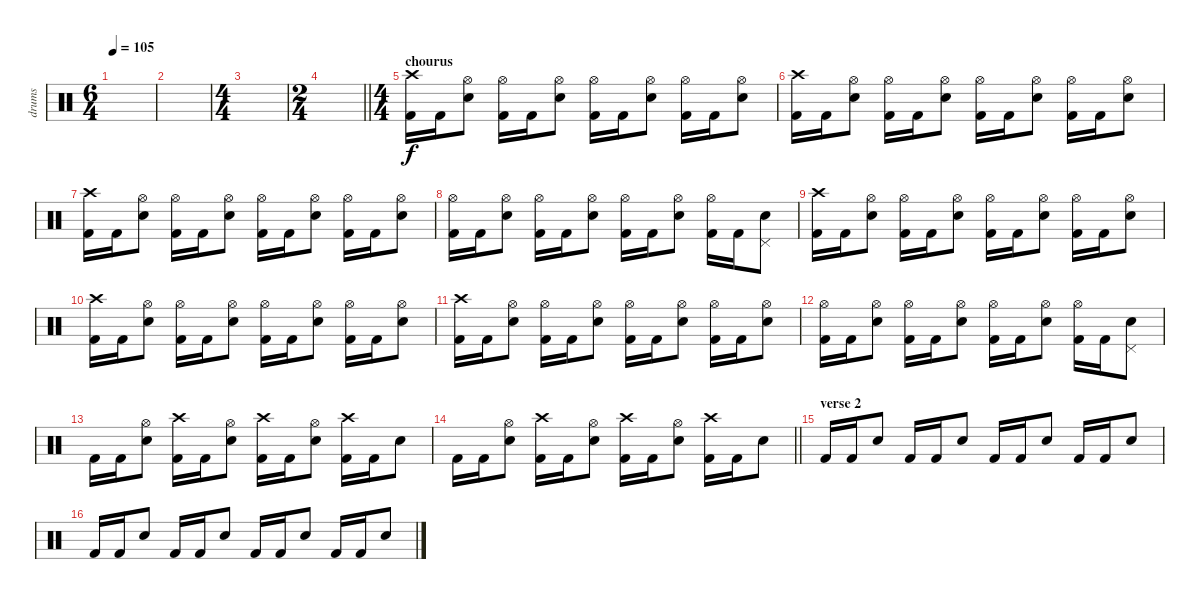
\track ("drums" "drums") {instrument percussion}
\staff {score}
\articulation defaults
\ts (6 4)
\tempo 105
\clef neutral
\ks c
|
|
\ts (4 4)
|
\ts (2 4)
\barLineRight lightlight
|
\ts (4 4)
\section ("" "chourus")
("Crash high (hit)" "Kick (hit) 2").16 "Kick (hit) 2".16 ("Hi-Hat (open)" "Snare (hit) 2").8 ("Hi-Hat (open)" "Kick (hit) 2").16 "Kick (hit) 2".16 ("Hi-Hat (open)" "Snare (hit) 2").8 ("Hi-Hat (open)" "Kick (hit) 2").16 "Kick (hit) 2".16 ("Hi-Hat (open)" "Snare (hit) 2").8 ("Hi-Hat (open)" "Kick (hit) 2").16 "Kick (hit) 2".16 ("Hi-Hat (open)" "Snare (hit) 2").8 |
("Crash high (hit)" "Kick (hit) 2").16 "Kick (hit) 2".16 ("Hi-Hat (open)" "Snare (hit) 2").8 ("Hi-Hat (open)" "Kick (hit) 2").16 "Kick (hit) 2".16 ("Hi-Hat (open)" "Snare (hit) 2").8 ("Hi-Hat (open)" "Kick (hit) 2").16 "Kick (hit) 2".16 ("Hi-Hat (open)" "Snare (hit) 2").8 ("Hi-Hat (open)" "Kick (hit) 2").16 "Kick (hit) 2".16 ("Hi-Hat (open)" "Snare (hit) 2").8 |
("Crash high (hit)" "Kick (hit) 2").16 "Kick (hit) 2".16 ("Hi-Hat (open)" "Snare (hit) 2").8 ("Hi-Hat (open)" "Kick (hit) 2").16 "Kick (hit) 2".16 ("Hi-Hat (open)" "Snare (hit) 2").8 ("Hi-Hat (open)" "Kick (hit) 2").16 "Kick (hit) 2".16 ("Hi-Hat (open)" "Snare (hit) 2").8 ("Hi-Hat (open)" "Kick (hit) 2").16 "Kick (hit) 2".16 ("Hi-Hat (open)" "Snare (hit) 2").8 |
("Hi-Hat (open)" "Kick (hit) 2").16 "Kick (hit) 2".16 ("Hi-Hat (open)" "Snare (hit) 2").8 ("Hi-Hat (open)" "Kick (hit) 2").16 "Kick (hit) 2".16 ("Hi-Hat (open)" "Snare (hit) 2").8 ("Hi-Hat (open)" "Kick (hit) 2").16 "Kick (hit) 2".16 ("Hi-Hat (open)" "Snare (hit) 2").8 ("Hi-Hat (open)" "Kick (hit) 2").16 "Kick (hit) 2".16 ("Pedal Hi-Hat (hit)" "Snare (hit) 2").8 |
("Crash high (hit)" "Kick (hit) 2").16 "Kick (hit) 2".16 ("Hi-Hat (open)" "Snare (hit) 2").8 ("Hi-Hat (open)" "Kick (hit) 2").16 "Kick (hit) 2".16 ("Hi-Hat (open)" "Snare (hit) 2").8 ("Hi-Hat (open)" "Kick (hit) 2").16 "Kick (hit) 2".16 ("Hi-Hat (open)" "Snare (hit) 2").8 ("Hi-Hat (open)" "Kick (hit) 2").16 "Kick (hit) 2".16 ("Hi-Hat (open)" "Snare (hit) 2").8 |
("Crash high (hit)" "Kick (hit) 2").16 "Kick (hit) 2".16 ("Hi-Hat (open)" "Snare (hit) 2").8 ("Hi-Hat (open)" "Kick (hit) 2").16 "Kick (hit) 2".16 ("Hi-Hat (open)" "Snare (hit) 2").8 ("Hi-Hat (open)" "Kick (hit) 2").16 "Kick (hit) 2".16 ("Hi-Hat (open)" "Snare (hit) 2").8 ("Hi-Hat (open)" "Kick (hit) 2").16 "Kick (hit) 2".16 ("Hi-Hat (open)" "Snare (hit) 2").8 |
("Crash high (hit)" "Kick (hit) 2").16 "Kick (hit) 2".16 ("Hi-Hat (open)" "Snare (hit) 2").8 ("Hi-Hat (open)" "Kick (hit) 2").16 "Kick (hit) 2".16 ("Hi-Hat (open)" "Snare (hit) 2").8 ("Hi-Hat (open)" "Kick (hit) 2").16 "Kick (hit) 2".16 ("Hi-Hat (open)" "Snare (hit) 2").8 ("Hi-Hat (open)" "Kick (hit) 2").16 "Kick (hit) 2".16 ("Hi-Hat (open)" "Snare (hit) 2").8 |
("Hi-Hat (open)" "Kick (hit) 2").16 "Kick (hit) 2".16 ("Hi-Hat (open)" "Snare (hit) 2").8 ("Hi-Hat (open)" "Kick (hit) 2").16 "Kick (hit) 2".16 ("Hi-Hat (open)" "Snare (hit) 2").8 ("Hi-Hat (open)" "Kick (hit) 2").16 "Kick (hit) 2".16 ("Hi-Hat (open)" "Snare (hit) 2").8 ("Hi-Hat (open)" "Kick (hit) 2").16 "Kick (hit) 2".16 ("Pedal Hi-Hat (hit)" "Snare (hit) 2").8 |
"Kick (hit) 2".16 "Kick (hit) 2".16 ("Hi-Hat (open)" "Snare (hit) 2").8 ("Crash high (hit)" "Kick (hit) 2").16 "Kick (hit) 2".16 ("Hi-Hat (open)" "Snare (hit) 2").8 ("Crash high (hit)" "Kick (hit) 2").16 "Kick (hit) 2".16 ("Hi-Hat (open)" "Snare (hit) 2").8 ("Crash high (hit)" "Kick (hit) 2").16 "Kick (hit) 2".16 "Snare (hit) 2".8 |
\barLineRight lightlight "Kick (hit) 2".16 "Kick (hit) 2".16
("Hi-Hat (open)" "Snare (hit) 2").8 ("Crash high (hit)" "Kick (hit) 2").16 "Kick (hit) 2".16 ("Hi-Hat (open)" "Snare (hit) 2").8 ("Crash high (hit)" "Kick (hit) 2").16 "Kick (hit) 2".16 ("Hi-Hat (open)" "Snare (hit) 2").8 ("Crash high (hit)" "Kick (hit) 2").16 "Kick (hit) 2".16 "Snare (hit) 2".8 |
\section ("" "verse 2")
"Kick (hit) 2".16 "Kick (hit) 2".16 "Snare (hit) 2".8 "Kick (hit) 2".16 "Kick (hit) 2".16 "Snare (hit) 2".8 "Kick (hit) 2".16 "Kick (hit) 2".16 "Snare (hit) 2".8 "Kick (hit) 2".16 "Kick (hit) 2".16 "Snare (hit) 2".8 |
"Kick (hit) 2".16 "Kick (hit) 2".16 "Snare (hit) 2".8 "Kick (hit) 2".16 "Kick (hit) 2".16 "Snare (hit) 2".8 "Kick (hit) 2".16 "Kick (hit) 2".16 "Snare (hit) 2".8 "Kick (hit) 2".16 "Kick (hit) 2".16 "Snare (hit) 2".8
